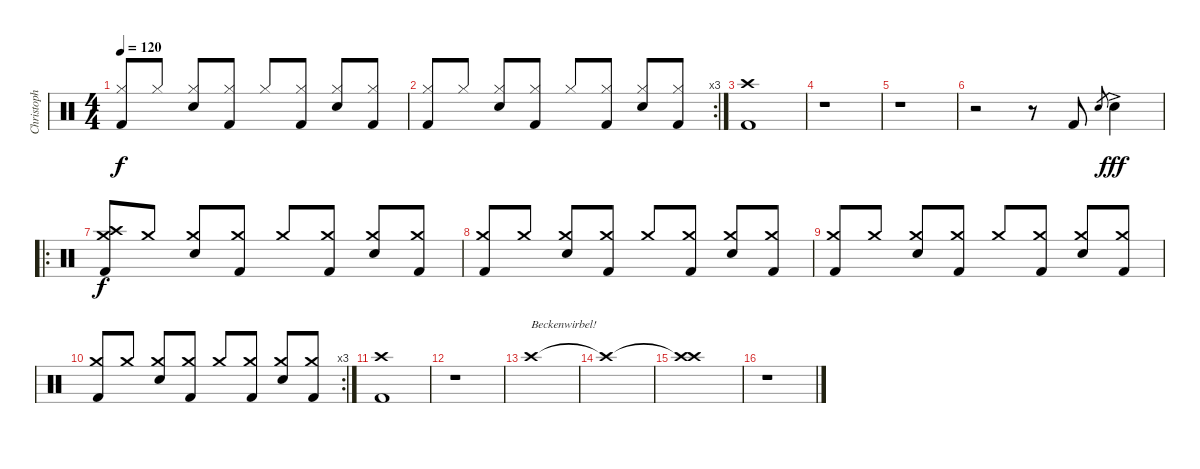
\track ("Christoph" "Christoph") {instrument percussion}
\staff {score}
\articulation defaults
\ts (4 4)
\tempo 120
\clef neutral
\ks c
("Hi-Hat (closed)" "Kick (hit) 2").8{dy f beam Up} "Hi-Hat (closed)".8{beam Up} ("Hi-Hat (closed)" "Snare (hit) 2").8{beam Up} ("Hi-Hat (closed)" "Kick (hit) 2").8{beam Up} "Hi-Hat (closed)".8{beam Up} ("Hi-Hat (closed)" "Kick (hit) 2").8{beam Up} ("Hi-Hat (closed)" "Snare (hit) 2").8{beam Up} ("Hi-Hat (closed)" "Kick (hit) 2").8{beam Up} |
\rc 3
("Hi-Hat (closed)" "Kick (hit) 2").8{beam Up} "Hi-Hat (closed)".8{beam Up} ("Hi-Hat (closed)" "Snare (hit) 2").8{beam Up} ("Hi-Hat (closed)" "Kick (hit) 2").8{beam Up} "Hi-Hat (closed)".8{beam Up} ("Hi-Hat (closed)" "Kick (hit) 2").8{beam Up} ("Hi-Hat (closed)" "Snare (hit) 2").8{beam Up} ("Hi-Hat (closed)" "Kick (hit) 2").8{beam Up} |
("Crash high (hit)" "Kick (hit) 2").1 |
r.1 |
r.1 |
r.2 r.8 "Kick (hit) 2".8 "Snare (hit) 2".8{gr} "Snare (hit) 2"{ac}.4{dy fff} |
\ro
("Crash medium (hit)" "Crash high (hit)" "Kick (hit) 2").8{dy f beam Up} "Crash medium (hit)".8{beam Up} ("Crash medium (hit)" "Snare (hit) 2").8{beam Up} ("Crash medium (hit)" "Kick (hit) 2").8{beam Up} "Crash medium (hit)".8{beam Up} ("Crash medium (hit)" "Kick (hit) 2").8{beam Up} ("Crash medium (hit)" "Snare (hit) 2").8{beam Up} ("Crash medium (hit)" "Kick (hit) 2").8{beam Up} |
("Crash medium (hit)" "Kick (hit) 2").8{beam Up} "Crash medium (hit)".8{beam Up} ("Crash medium (hit)" "Snare (hit) 2").8{beam Up} ("Crash medium (hit)" "Kick (hit) 2").8{beam Up} "Crash medium (hit)".8{beam Up} ("Crash medium (hit)" "Kick (hit) 2").8{beam Up} ("Crash medium (hit)" "Snare (hit) 2").8{beam Up} ("Crash medium (hit)" "Kick (hit) 2").8{beam Up} |
("Crash medium (hit)" "Kick (hit) 2").8{beam Up} "Crash medium (hit)".8{beam Up} ("Crash medium (hit)" "Snare (hit) 2").8{beam Up} ("Crash medium (hit)" "Kick (hit) 2").8{beam Up} "Crash medium (hit)".8{beam Up} ("Crash medium (hit)" "Kick (hit) 2").8{beam Up} ("Crash medium (hit)" "Snare (hit) 2").8{beam Up} ("Crash medium (hit)" "Kick (hit) 2").8{beam Up} |
\rc 3
("Crash medium (hit)" "Kick (hit) 2").8{beam Up} "Crash medium (hit)".8{beam Up} ("Crash medium (hit)" "Snare (hit) 2").8{beam Up} ("Crash medium (hit)" "Kick (hit) 2").8{beam Up} "Crash medium (hit)".8{beam Up} ("Crash medium (hit)" "Kick (hit) 2").8{beam Up} ("Crash medium (hit)" "Snare (hit) 2").8{beam Up} ("Crash medium (hit)" "Kick (hit) 2").8{beam Up} |
("Crash high (hit)" "Kick (hit) 2").1 |
r.1 |
"Crash high (hit)".1{txt "Beckenwirbel!"} |
"Crash high (hit)"{t}.1 |
("Crash high (hit)"{t} "Crash high (hit)").1 |
r.1
